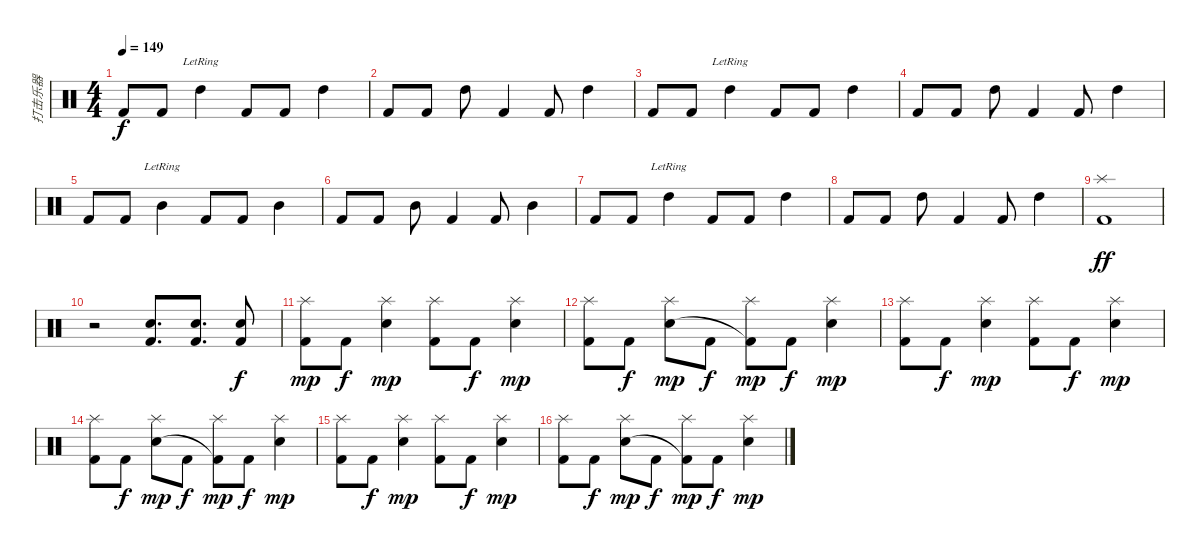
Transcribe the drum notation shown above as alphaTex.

\track ("打击乐器" "打击乐器") {instrument percussion}
\staff {score}
\articulation defaults
\ts (4 4)
\tempo 149
\clef neutral
\ks c "Kick (hit) 2".8{dy f} "Kick (hit) 2".8 "High Tom (hit)"{lr}.4 "Kick (hit) 2".8 "Kick (hit) 2".8 "High Tom (hit)".4
|
"Kick (hit) 2".8 "Kick (hit) 2".8 "High Tom (hit)".8 "Kick (hit) 2".4 "Kick (hit) 2".8 "High Tom (hit)".4 |
"Kick (hit) 2".8 "Kick (hit) 2".8 "High Tom (hit)"{lr}.4 "Kick (hit) 2".8 "Kick (hit) 2".8 "High Tom (hit)".4 |
"Kick (hit) 2".8 "Kick (hit) 2".8 "High Tom (hit)".8 "Kick (hit) 2".4 "Kick (hit) 2".8 "High Tom (hit)".4 |
"Kick (hit) 2".8 "Kick (hit) 2".8 "Mid Tom (hit)"{lr}.4 "Kick (hit) 2".8 "Kick (hit) 2".8 "Mid Tom (hit)".4 |
"Kick (hit) 2".8 "Kick (hit) 2".8 "Mid Tom (hit)".8 "Kick (hit) 2".4 "Kick (hit) 2".8 "Mid Tom (hit)".4 |
"Kick (hit) 2".8 "Kick (hit) 2".8 "High Tom (hit)"{lr}.4 "Kick (hit) 2".8 "Kick (hit) 2".8 "High Tom (hit)".4 |
"Kick (hit) 2".8 "Kick (hit) 2".8 "High Tom (hit)".8 "Kick (hit) 2".4 "Kick (hit) 2".8 "High Tom (hit)".4 |
("Splash (hit)" "Kick (hit) 2").1{dy ff} |
r.2 ("Electric Snare (hit)" "Kick (hit) 2").8{d} ("Electric Snare (hit)" "Kick (hit) 2").8{d} ("Electric Snare (hit)" "Kick (hit) 2").8{dy f} |
("Splash (hit)" "Kick (hit) 2").8{dy mp} "Kick (hit) 2".8{dy f} ("Splash (hit)" "Electric Snare (hit)").4{dy mp} ("Splash (hit)" "Kick (hit) 2").8 "Kick (hit) 2".8{dy f} ("Splash (hit)" "Electric Snare (hit)").4{dy mp} |
("Splash (hit)" "Kick (hit) 2").8 "Kick (hit) 2".8{dy f} ("Splash (hit)" "Electric Snare (hit)").8{dy mp} "Kick (hit) 2".8{dy f} ("Splash (hit)" "Kick (hit) 2"{t}).8{dy mp} "Kick (hit) 2".8{dy f} ("Splash (hit)" "Electric Snare (hit)").4{dy mp} |
("Splash (hit)" "Kick (hit) 2").8 "Kick (hit) 2".8{dy f} ("Splash (hit)" "Electric Snare (hit)").4{dy mp} ("Splash (hit)" "Kick (hit) 2").8 "Kick (hit) 2".8{dy f} ("Splash (hit)" "Electric Snare (hit)").4{dy mp} |
("Splash (hit)" "Kick (hit) 2").8 "Kick (hit) 2".8{dy f} ("Splash (hit)" "Electric Snare (hit)").8{dy mp} "Kick (hit) 2".8{dy f} ("Splash (hit)" "Kick (hit) 2"{t}).8{dy mp} "Kick (hit) 2".8{dy f} ("Splash (hit)" "Electric Snare (hit)").4{dy mp} |
("Splash (hit)" "Kick (hit) 2").8 "Kick (hit) 2".8{dy f} ("Splash (hit)" "Electric Snare (hit)").4{dy mp} ("Splash (hit)" "Kick (hit) 2").8 "Kick (hit) 2".8{dy f} ("Splash (hit)" "Electric Snare (hit)").4{dy mp} |
("Splash (hit)" "Kick (hit) 2").8 "Kick (hit) 2".8{dy f} ("Splash (hit)" "Electric Snare (hit)").8{dy mp} "Kick (hit) 2".8{dy f} ("Splash (hit)" "Kick (hit) 2"{t}).8{dy mp} "Kick (hit) 2".8{dy f} ("Splash (hit)" "Electric Snare (hit)").4{dy mp}
